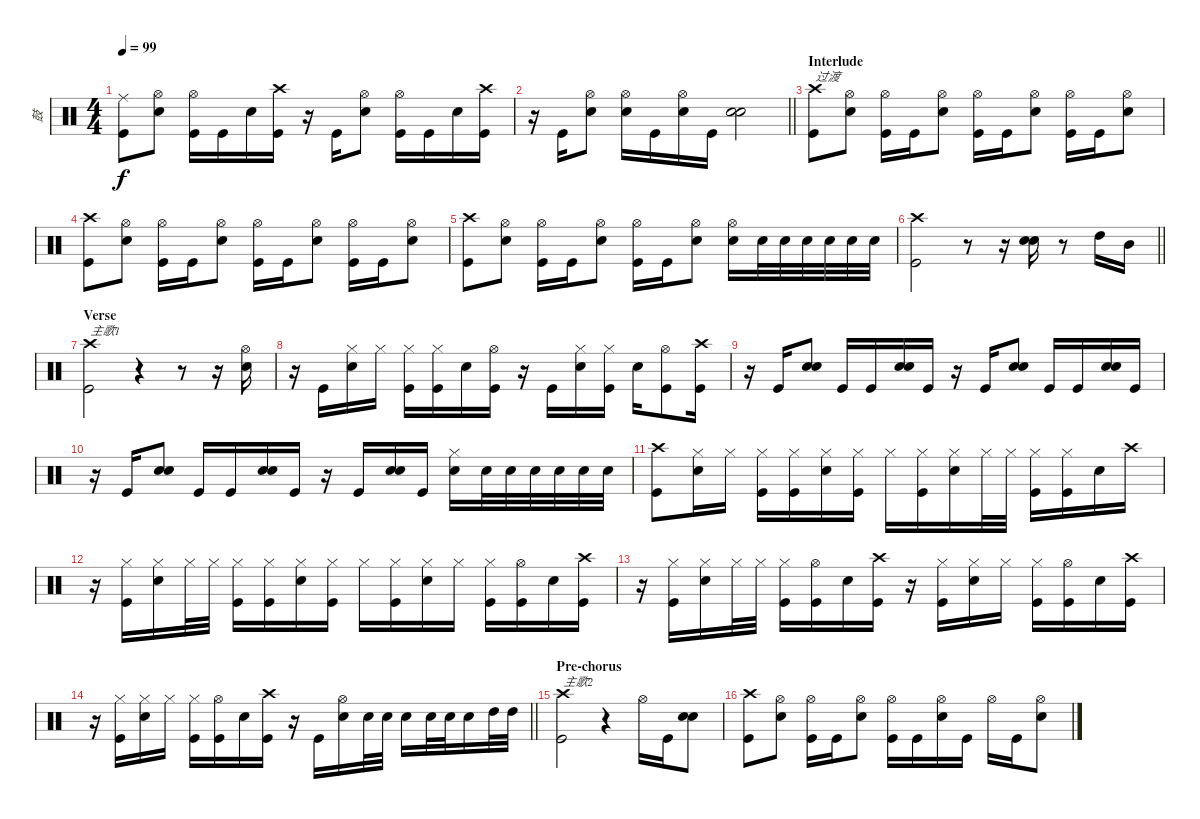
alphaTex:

\track ("鼓" "鼓") {instrument percussion}
\staff {score}
\articulation defaults
\ts (4 4)
\tempo 99
\clef neutral
\ks c
("Ride (middle)" "Kick (hit)").8{dy f} ("Snare (hit) 2" "Hi-Hat (open)").8 ("Kick (hit)" "Hi-Hat (open)").16 "Kick (hit)".16 "Snare (hit) 2".16 ("Kick (hit)" "Crash high (hit)").16 r.16 "Kick (hit)".16 ("Hi-Hat (open)" "Snare (hit) 2").8 ("Kick (hit)" "Hi-Hat (open)").16 "Kick (hit)".16 "Snare (hit) 2".16 ("Kick (hit)" "Crash high (hit)").16 |
\barLineRight lightlight
r.16 "Kick (hit)".16 ("Hi-Hat (open)" "Snare (hit) 2").8 ("Hi-Hat (open)" "Snare (hit) 2").16 "Kick (hit)".16 ("Snare (hit) 2" "Hi-Hat (open)").16 "Kick (hit)".16 ("Snare (hit) 2" "Snare (hit) 2").2 |
\section ("" "Interlude")
("Crash high (hit)" "Kick (hit)").8{txt "过渡"} ("Snare (hit) 2" "Hi-Hat (open)").8 ("Kick (hit)" "Hi-Hat (open)").16 "Kick (hit)".16 ("Snare (hit) 2" "Hi-Hat (open)").8 ("Kick (hit)" "Hi-Hat (open)").16 "Kick (hit)".16 ("Snare (hit) 2" "Hi-Hat (open)").8 ("Kick (hit)" "Hi-Hat (open)").16 "Kick (hit)".16 ("Snare (hit) 2" "Hi-Hat (open)").8 |
("Crash high (hit)" "Kick (hit)").8 ("Snare (hit) 2" "Hi-Hat (open)").8 ("Kick (hit)" "Hi-Hat (open)").16 "Kick (hit)".16 ("Snare (hit) 2" "Hi-Hat (open)").8 ("Kick (hit)" "Hi-Hat (open)").16 "Kick (hit)".16 ("Snare (hit) 2" "Hi-Hat (open)").8 ("Kick (hit)" "Hi-Hat (open)").16 "Kick (hit)".16 ("Snare (hit) 2" "Hi-Hat (open)").8 |
("Crash high (hit)" "Kick (hit)").8 ("Snare (hit) 2" "Hi-Hat (open)").8 ("Kick (hit)" "Hi-Hat (open)").16 "Kick (hit)".16 ("Snare (hit) 2" "Hi-Hat (open)").8 ("Kick (hit)" "Hi-Hat (open)").16 "Kick (hit)".16 ("Snare (hit) 2" "Hi-Hat (open)").8 ("Hi-Hat (open)" "Snare (hit) 2").16 "Snare (hit) 2".32 "Snare (hit) 2".32 "Snare (hit) 2".32 "Snare (hit) 2".32 "Snare (hit) 2".32 "Snare (hit) 2".32 |
\barLineRight lightlight
("Crash high (hit)" "Kick (hit)").2 r.8 r.16 ("Snare (hit) 2" "Snare (hit) 2").16 r.8 "High Tom (hit)".16 "Mid Tom (hit)".16 |
\section ("" "Verse")
("Crash high (hit)" "Kick (hit)").2{txt "主歌1"} r.4 r.8 r.16 ("Hi-Hat (open)" "Snare (hit) 2").16 |
r.16 "Kick (hit)".16 ("Snare (hit) 2" "Hi-Hat (closed)").16 "Hi-Hat (closed)".16 ("Kick (hit)" "Hi-Hat (closed)").16 ("Kick (hit)" "Hi-Hat (closed)").16 "Snare (hit) 2".16 ("Hi-Hat (open)" "Kick (hit)").16 r.16 "Kick (hit)".16 ("Snare (hit) 2" "Hi-Hat (closed)").16 ("Hi-Hat (closed)" "Kick (hit)").16 "Snare (hit) 2".16 ("Hi-Hat (open)" "Kick (hit)").8 ("Kick (hit)" "Crash high (hit)").16 |
r.16 "Kick (hit)".16 ("Snare (hit) 2" "Snare (hit) 2").8 "Kick (hit)".16 "Kick (hit)".16 ("Snare (hit) 2" "Snare (hit) 2").16 "Kick (hit)".16 r.16 "Kick (hit)".16 ("Snare (hit) 2" "Snare (hit) 2").8 "Kick (hit)".16 "Kick (hit)".16 ("Snare (hit) 2" "Snare (hit) 2").16 "Kick (hit)".16 |
r.16 "Kick (hit)".16 ("Snare (hit) 2" "Snare (hit) 2").8 "Kick (hit)".16 "Kick (hit)".16 ("Snare (hit) 2" "Snare (hit) 2").16 "Kick (hit)".16 r.16 "Kick (hit)".16 ("Snare (hit) 2" "Snare (hit) 2").16 "Kick (hit)".16 ("Snare (hit) 2" "Hi-Hat (closed)").16 "Snare (hit) 2".32 "Snare (hit) 2".32 "Snare (hit) 2".32 "Snare (hit) 2".32 "Snare (hit) 2".32 "Snare (hit) 2".32 |
("Crash high (hit)" "Kick (hit)").8 ("Snare (hit) 2" "Hi-Hat (closed)").16 "Hi-Hat (closed)".16 ("Hi-Hat (closed)" "Kick (hit)").16 ("Kick (hit)" "Hi-Hat (closed)").16 ("Snare (hit) 2" "Hi-Hat (closed)").16 ("Hi-Hat (closed)" "Kick (hit)").16 "Hi-Hat (closed)".16 ("Kick (hit)" "Hi-Hat (closed)").16 ("Snare (hit) 2" "Hi-Hat (closed)").16 "Hi-Hat (closed)".32 "Hi-Hat (closed)".32 ("Kick (hit)" "Hi-Hat (closed)").16 ("Kick (hit)" "Hi-Hat (closed)").16 "Snare (hit) 2".16 "Crash high (hit)".16 |
r.16 ("Kick (hit)" "Hi-Hat (closed)").16 ("Snare (hit) 2" "Hi-Hat (closed)").16 "Hi-Hat (closed)".32 "Hi-Hat (closed)".32 ("Hi-Hat (closed)" "Kick (hit)").16 ("Kick (hit)" "Hi-Hat (closed)").16 ("Snare (hit) 2" "Hi-Hat (closed)").16 ("Hi-Hat (closed)" "Kick (hit)").16 "Hi-Hat (closed)".16 ("Kick (hit)" "Hi-Hat (closed)").16 ("Snare (hit) 2" "Hi-Hat (closed)").16 "Hi-Hat (closed)".16 ("Kick (hit)" "Hi-Hat (closed)").16 ("Hi-Hat (open)" "Kick (hit)").16 "Snare (hit) 2".16 ("Crash high (hit)" "Kick (hit)").16 |
r.16 ("Kick (hit)" "Hi-Hat (closed)").16 ("Snare (hit) 2" "Hi-Hat (closed)").16 "Hi-Hat (closed)".32 "Hi-Hat (closed)".32 ("Hi-Hat (closed)" "Kick (hit)").16 ("Kick (hit)" "Hi-Hat (open)").16 "Snare (hit) 2".16 ("Crash high (hit)" "Kick (hit)").16 r.16 ("Kick (hit)" "Hi-Hat (closed)").16 ("Snare (hit) 2" "Hi-Hat (closed)").16 "Hi-Hat (closed)".16 ("Kick (hit)" "Hi-Hat (closed)").16 ("Hi-Hat (open)" "Kick (hit)").16 "Snare (hit) 2".16 ("Crash high (hit)" "Kick (hit)").16 |
\barLineRight lightlight
r.16 ("Kick (hit)" "Hi-Hat (closed)").16 ("Snare (hit) 2" "Hi-Hat (closed)").16 "Hi-Hat (closed)".16 ("Kick (hit)" "Hi-Hat (closed)").16 ("Kick (hit)" "Hi-Hat (open)").16 "Snare (hit) 2".16 ("Crash high (hit)" "Kick (hit)").16 r.16 "Kick (hit)".16 ("Snare (hit) 2" "Hi-Hat (open)").16 "Snare (hit) 2".32 "Snare (hit) 2".32 "Snare (hit) 2".16 "Snare (hit) 2".32 "Snare (hit) 2".32 "Snare (hit) 2".16 "High Tom (hit)".32 "High Tom (hit)".32 |
\section ("" "Pre-chorus")
("Crash high (hit)" "Kick (hit)").2{txt "主歌2"} r.4 "Hi-Hat (open)".16 "Kick (hit)".16 ("Snare (hit) 2" "Snare (hit) 2").8 |
("Crash high (hit)" "Kick (hit)").8 ("Snare (hit) 2" "Hi-Hat (open)").8 ("Kick (hit)" "Hi-Hat (open)").16 "Kick (hit)".16 ("Snare (hit) 2" "Hi-Hat (open)").8 ("Kick (hit)" "Hi-Hat (open)").16 "Kick (hit)".16 ("Snare (hit) 2" "Hi-Hat (open)").16 "Kick (hit)".16 "Hi-Hat (open)".16 "Kick (hit)".16 ("Snare (hit) 2" "Hi-Hat (open)").8
